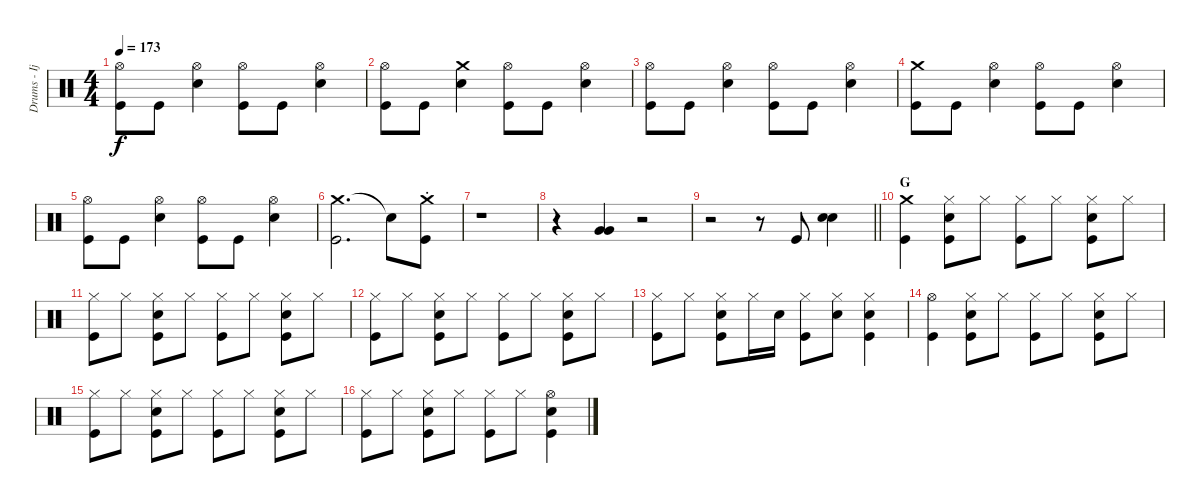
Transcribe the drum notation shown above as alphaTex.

\track ("Drums - Ijichi" "Drums - Ij") {instrument percussion}
\staff {score}
\articulation defaults
\ts (4 4)
\tempo 173
\clef neutral
\ks c
("Hi-Hat (open)" "Kick (hit)").8{dy f} "Kick (hit)".8 ("Hi-Hat (open)" "Electric Snare (hit)").4 ("Hi-Hat (open)" "Kick (hit)").8 "Kick (hit)".8 ("Hi-Hat (open)" "Electric Snare (hit)").4 |
("Hi-Hat (open)" "Kick (hit)").8 "Kick (hit)".8 ("Crash medium (hit)" "Electric Snare (hit)").4 ("Hi-Hat (open)" "Kick (hit)").8 "Kick (hit)".8 ("Hi-Hat (open)" "Electric Snare (hit)").4 |
("Hi-Hat (open)" "Kick (hit)").8 "Kick (hit)".8 ("Hi-Hat (open)" "Electric Snare (hit)").4 ("Hi-Hat (open)" "Kick (hit)").8 "Kick (hit)".8 ("Hi-Hat (open)" "Electric Snare (hit)").4 |
("Crash medium (hit)" "Kick (hit)").8 "Kick (hit)".8 ("Hi-Hat (open)" "Electric Snare (hit)").4 ("Hi-Hat (open)" "Kick (hit)").8 "Kick (hit)".8 ("Hi-Hat (open)" "Electric Snare (hit)").4 |
("Hi-Hat (open)" "Kick (hit)").8 "Kick (hit)".8 ("Hi-Hat (open)" "Electric Snare (hit)").4 ("Hi-Hat (open)" "Kick (hit)").8 "Kick (hit)".8 ("Hi-Hat (open)" "Electric Snare (hit)").4 |
("Crash medium (hit)" "Kick (hit)").2{d} "Snare (hit)"{t}.8 ("Crash medium (hit)"{st} "Kick (hit)").8 |
r.1 |
r.4 ("Very Low Tom (hit)" "Very Low Tom (hit)").4 r.2 |
\barLineRight lightlight
r.2 r.8 "Kick (hit)".8 ("Electric Snare (hit)" "Electric Snare (hit)").4 |
\section ("" "G")
("Crash medium (hit)" "Kick (hit)").4 ("Hi-Hat (closed)" "Electric Snare (hit)" "Kick (hit)").8 "Hi-Hat (closed)".8 ("Hi-Hat (closed)" "Kick (hit)").8 "Hi-Hat (closed)".8 ("Hi-Hat (closed)" "Electric Snare (hit)" "Kick (hit)").8 "Hi-Hat (closed)".8 |
("Hi-Hat (closed)" "Kick (hit)").8 "Hi-Hat (closed)".8 ("Hi-Hat (closed)" "Electric Snare (hit)" "Kick (hit)").8 "Hi-Hat (closed)".8 ("Hi-Hat (closed)" "Kick (hit)").8 "Hi-Hat (closed)".8 ("Hi-Hat (closed)" "Electric Snare (hit)" "Kick (hit)").8 "Hi-Hat (closed)".8 |
("Hi-Hat (closed)" "Kick (hit)").8 "Hi-Hat (closed)".8 ("Hi-Hat (closed)" "Electric Snare (hit)" "Kick (hit)").8 "Hi-Hat (closed)".8 ("Hi-Hat (closed)" "Kick (hit)").8 "Hi-Hat (closed)".8 ("Hi-Hat (closed)" "Electric Snare (hit)" "Kick (hit)").8 "Hi-Hat (closed)".8 |
("Hi-Hat (closed)" "Kick (hit)").8 "Hi-Hat (closed)".8 ("Hi-Hat (closed)" "Electric Snare (hit)" "Kick (hit)").8 "Hi-Hat (closed)".16 "Electric Snare (hit)".16 ("Hi-Hat (closed)" "Kick (hit)").8 ("Hi-Hat (closed)" "Electric Snare (hit)").8 ("Hi-Hat (closed)" "Electric Snare (hit)" "Kick (hit)").4 |
("Hi-Hat (open)" "Kick (hit)").4 ("Hi-Hat (closed)" "Electric Snare (hit)" "Kick (hit)").8 "Hi-Hat (closed)".8 ("Hi-Hat (closed)" "Kick (hit)").8 "Hi-Hat (closed)".8 ("Hi-Hat (closed)" "Electric Snare (hit)" "Kick (hit)").8 "Hi-Hat (closed)".8 |
("Hi-Hat (closed)" "Kick (hit)").8 "Hi-Hat (closed)".8 ("Hi-Hat (closed)" "Electric Snare (hit)" "Kick (hit)").8 "Hi-Hat (closed)".8 ("Hi-Hat (closed)" "Kick (hit)").8 "Hi-Hat (closed)".8 ("Hi-Hat (closed)" "Electric Snare (hit)" "Kick (hit)").8 "Hi-Hat (closed)".8 |
("Hi-Hat (closed)" "Kick (hit)").8 "Hi-Hat (closed)".8 ("Hi-Hat (closed)" "Electric Snare (hit)" "Kick (hit)").8 "Hi-Hat (closed)".8 ("Hi-Hat (closed)" "Kick (hit)").8 "Hi-Hat (closed)".8 ("Hi-Hat (open)" "Electric Snare (hit)" "Kick (hit)").4
